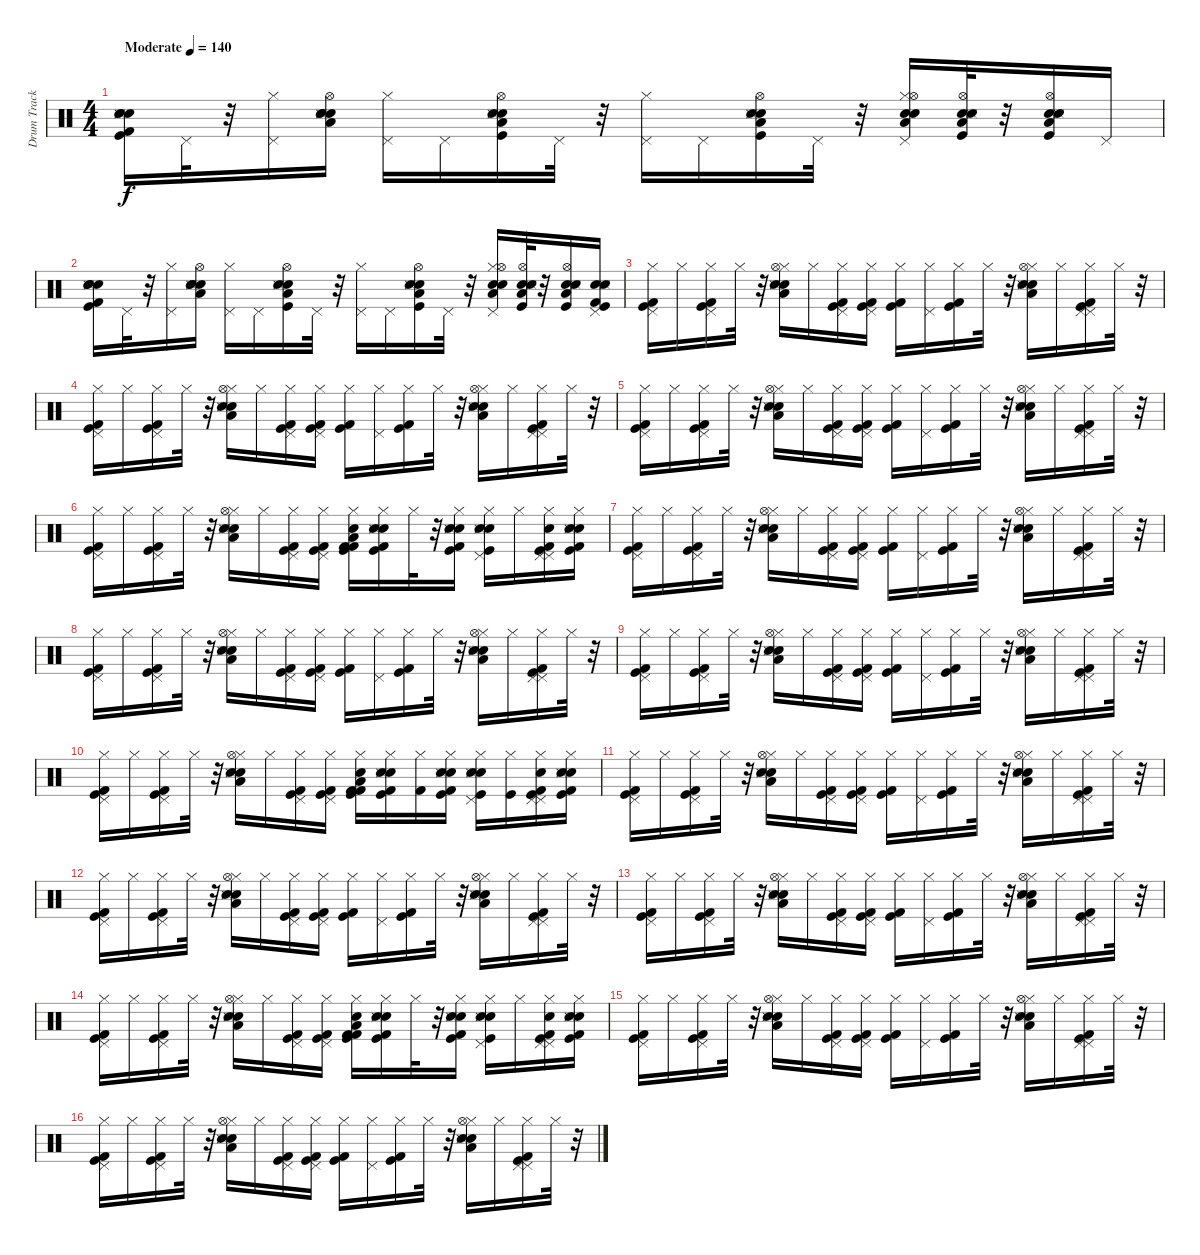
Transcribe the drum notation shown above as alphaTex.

\track ("Drum Track" "Drum Track") {instrument percussion}
\staff {score}
\articulation defaults
\ts (4 4)
\tempo (140 "Moderate")
\clef neutral
\ks c
("Snare (hit) 2" "Kick (hit) 2" "Kick (hit)" "Snare (side stick) 3" "Hand Clap (hit)" "Electric Snare (hit)").16{dy f} "Pedal Hi-Hat (hit)".32 r.32 ("Pedal Hi-Hat (hit)" "Hi-Hat (closed)").16 ("Hi-Hat (open)" "Low Floor Tom (hit)" "Electric Snare (hit)" "Snare (hit) 2" "Hand Clap (hit)" "Snare (side stick) 3").16 ("Pedal Hi-Hat (hit)" "Hi-Hat (closed)").16 "Pedal Hi-Hat (hit)".16 ("Hi-Hat (open)" "Low Floor Tom (hit)" "Electric Snare (hit)" "Hand Clap (hit)" "Snare (side stick) 3" "Kick (hit)").16 "Pedal Hi-Hat (hit)".32 r.32 ("Pedal Hi-Hat (hit)" "Hi-Hat (closed)").16 "Pedal Hi-Hat (hit)".16 ("Hi-Hat (open)" "Low Floor Tom (hit)" "Electric Snare (hit)" "Hand Clap (hit)" "Snare (side stick) 3" "Kick (hit)").16 "Pedal Hi-Hat (hit)".32 r.32 ("Pedal Hi-Hat (hit)" "Hi-Hat (closed)" "Hi-Hat (open)" "Low Floor Tom (hit)" "Electric Snare (hit)" "Hand Clap (hit)").16 ("Hi-Hat (open)" "Low Floor Tom (hit)" "Electric Snare (hit)" "Hand Clap (hit)" "Snare (side stick) 3" "Kick (hit)").32 r.32 ("Hi-Hat (open)" "Low Floor Tom (hit)" "Electric Snare (hit)" "Hand Clap (hit)" "Snare (side stick) 3" "Kick (hit)").16 "Pedal Hi-Hat (hit)".16 |
("Snare (hit) 2" "Kick (hit) 2" "Kick (hit)" "Snare (side stick) 3" "Hand Clap (hit)" "Electric Snare (hit)").16 "Pedal Hi-Hat (hit)".32 r.32 ("Pedal Hi-Hat (hit)" "Hi-Hat (closed)").16 ("Hi-Hat (open)" "Low Floor Tom (hit)" "Electric Snare (hit)" "Snare (hit) 2" "Hand Clap (hit)" "Snare (side stick) 3").16 ("Pedal Hi-Hat (hit)" "Hi-Hat (closed)").16 "Pedal Hi-Hat (hit)".16 ("Hi-Hat (open)" "Low Floor Tom (hit)" "Electric Snare (hit)" "Hand Clap (hit)" "Snare (side stick) 3" "Kick (hit)").16 "Pedal Hi-Hat (hit)".32 r.32 ("Pedal Hi-Hat (hit)" "Hi-Hat (closed)").16 "Pedal Hi-Hat (hit)".16 ("Hi-Hat (open)" "Low Floor Tom (hit)" "Electric Snare (hit)" "Hand Clap (hit)" "Snare (side stick) 3" "Kick (hit)").16 "Pedal Hi-Hat (hit)".32 r.32 ("Pedal Hi-Hat (hit)" "Hi-Hat (closed)" "Hi-Hat (open)" "Low Floor Tom (hit)" "Electric Snare (hit)" "Hand Clap (hit)").16 ("Hi-Hat (open)" "Low Floor Tom (hit)" "Electric Snare (hit)" "Hand Clap (hit)" "Snare (side stick) 3" "Kick (hit)").32 r.32 ("Hi-Hat (open)" "Low Floor Tom (hit)" "Electric Snare (hit)" "Hand Clap (hit)" "Snare (side stick) 3" "Kick (hit)").16 ("Pedal Hi-Hat (hit)" "Snare (hit) 2" "Kick (hit) 2" "Kick (hit)" "Snare (side stick) 3" "Hand Clap (hit)").16 |
("Kick (hit) 2" "Kick (hit)" "Pedal Hi-Hat (hit)" "Hi-Hat (closed)").16 "Hi-Hat (closed)".16 ("Kick (hit) 2" "Kick (hit)" "Pedal Hi-Hat (hit)" "Hi-Hat (closed)").16 "Hi-Hat (closed)".32 r.32 ("Hi-Hat (closed)" "Hi-Hat (open)" "Low Floor Tom (hit)" "Electric Snare (hit)" "Hand Clap (hit)" "Snare (side stick) 3").16 "Hi-Hat (closed)".16 ("Kick (hit) 2" "Kick (hit)" "Pedal Hi-Hat (hit)" "Hi-Hat (closed)").16 ("Kick (hit) 2" "Kick (hit)" "Pedal Hi-Hat (hit)" "Hi-Hat (closed)").16 ("Kick (hit) 2" "Kick (hit)" "Hi-Hat (closed)").16 ("Pedal Hi-Hat (hit)" "Hi-Hat (closed)").16 ("Kick (hit) 2" "Kick (hit)" "Hi-Hat (closed)").16 "Hi-Hat (closed)".32 r.32 ("Hi-Hat (closed)" "Hi-Hat (open)" "Low Floor Tom (hit)" "Electric Snare (hit)" "Hand Clap (hit)" "Snare (side stick) 3").16 "Hi-Hat (closed)".16 ("Kick (hit) 2" "Kick (hit)" "Pedal Hi-Hat (hit)" "Pedal Hi-Hat (hit)" "Hi-Hat (closed)").16 "Hi-Hat (closed)".32 r.32 |
("Hi-Hat (closed)" "Pedal Hi-Hat (hit)" "Kick (hit)" "Kick (hit) 2").16 "Hi-Hat (closed)".16 ("Kick (hit) 2" "Kick (hit)" "Pedal Hi-Hat (hit)" "Hi-Hat (closed)").16 "Hi-Hat (closed)".32 r.32 ("Hi-Hat (closed)" "Hi-Hat (open)" "Low Floor Tom (hit)" "Electric Snare (hit)" "Hand Clap (hit)" "Snare (side stick) 3").16 "Hi-Hat (closed)".16 ("Kick (hit) 2" "Kick (hit)" "Pedal Hi-Hat (hit)" "Hi-Hat (closed)").16 ("Kick (hit) 2" "Kick (hit)" "Pedal Hi-Hat (hit)" "Hi-Hat (closed)").16 ("Kick (hit) 2" "Kick (hit)" "Hi-Hat (closed)").16 ("Pedal Hi-Hat (hit)" "Hi-Hat (closed)").16 ("Kick (hit) 2" "Kick (hit)" "Hi-Hat (closed)").16 "Hi-Hat (closed)".32 r.32 ("Hi-Hat (closed)" "Hi-Hat (open)" "Low Floor Tom (hit)" "Electric Snare (hit)" "Hand Clap (hit)" "Snare (side stick) 3").16 "Hi-Hat (closed)".16 ("Kick (hit) 2" "Kick (hit)" "Pedal Hi-Hat (hit)" "Pedal Hi-Hat (hit)" "Hi-Hat (closed)").16 "Hi-Hat (closed)".32 r.32 |
("Hi-Hat (closed)" "Pedal Hi-Hat (hit)" "Kick (hit)" "Kick (hit) 2").16 "Hi-Hat (closed)".16 ("Kick (hit) 2" "Kick (hit)" "Pedal Hi-Hat (hit)" "Hi-Hat (closed)").16 "Hi-Hat (closed)".32 r.32 ("Hi-Hat (closed)" "Hi-Hat (open)" "Low Floor Tom (hit)" "Electric Snare (hit)" "Hand Clap (hit)" "Snare (side stick) 3").16 "Hi-Hat (closed)".16 ("Kick (hit) 2" "Kick (hit)" "Pedal Hi-Hat (hit)" "Hi-Hat (closed)").16 ("Kick (hit) 2" "Kick (hit)" "Pedal Hi-Hat (hit)" "Hi-Hat (closed)").16 ("Kick (hit) 2" "Kick (hit)" "Hi-Hat (closed)").16 ("Pedal Hi-Hat (hit)" "Hi-Hat (closed)").16 ("Kick (hit) 2" "Kick (hit)" "Hi-Hat (closed)").16 "Hi-Hat (closed)".32 r.32 ("Hi-Hat (closed)" "Hi-Hat (open)" "Low Floor Tom (hit)" "Electric Snare (hit)" "Hand Clap (hit)" "Snare (side stick) 3").16 "Hi-Hat (closed)".16 ("Kick (hit) 2" "Kick (hit)" "Pedal Hi-Hat (hit)" "Pedal Hi-Hat (hit)" "Hi-Hat (closed)").16 "Hi-Hat (closed)".32 r.32 |
("Hi-Hat (closed)" "Pedal Hi-Hat (hit)" "Kick (hit)" "Kick (hit) 2").16 "Hi-Hat (closed)".16 ("Kick (hit) 2" "Kick (hit)" "Pedal Hi-Hat (hit)" "Hi-Hat (closed)").16 "Hi-Hat (closed)".32 r.32 ("Hi-Hat (closed)" "Hi-Hat (open)" "Low Floor Tom (hit)" "Electric Snare (hit)" "Hand Clap (hit)" "Snare (side stick) 3").16 "Hi-Hat (closed)".16 ("Kick (hit) 2" "Kick (hit)" "Pedal Hi-Hat (hit)" "Hi-Hat (closed)").16 ("Kick (hit) 2" "Kick (hit)" "Pedal Hi-Hat (hit)" "Hi-Hat (closed)").16 ("Kick (hit) 2" "Kick (hit)" "Hi-Hat (closed)" "Low Floor Tom (hit)" "Snare (hit) 2" "Kick (hit) 2").16 ("Hi-Hat (closed)" "Electric Snare (hit)" "Hand Clap (hit)" "Snare (side stick) 3" "Kick (hit)" "Kick (hit) 2").16 "Hi-Hat (closed)".32 r.32 ("Hi-Hat (closed)" "Kick (hit) 2" "Kick (hit)" "Electric Snare (hit)" "Hand Clap (hit)" "Snare (side stick) 3").16 ("Hi-Hat (closed)" "Pedal Hi-Hat (hit)" "Electric Snare (hit)" "Hand Clap (hit)" "Snare (side stick) 3" "Kick (hit)").16 "Hi-Hat (closed)".16 ("Kick (hit) 2" "Kick (hit)" "Pedal Hi-Hat (hit)" "Pedal Hi-Hat (hit)" "Hi-Hat (closed)" "Electric Snare (hit)").16 ("Hi-Hat (closed)" "Electric Snare (hit)" "Hand Clap (hit)" "Snare (side stick) 3" "Kick (hit)" "Kick (hit) 2").16 |
("Hi-Hat (closed)" "Pedal Hi-Hat (hit)" "Kick (hit)" "Kick (hit) 2").16 "Hi-Hat (closed)".16 ("Kick (hit) 2" "Kick (hit)" "Pedal Hi-Hat (hit)" "Hi-Hat (closed)").16 "Hi-Hat (closed)".32 r.32 ("Hi-Hat (closed)" "Hi-Hat (open)" "Low Floor Tom (hit)" "Electric Snare (hit)" "Hand Clap (hit)" "Snare (side stick) 3").16 "Hi-Hat (closed)".16 ("Kick (hit) 2" "Kick (hit)" "Pedal Hi-Hat (hit)" "Hi-Hat (closed)").16 ("Kick (hit) 2" "Kick (hit)" "Pedal Hi-Hat (hit)" "Hi-Hat (closed)").16 ("Kick (hit) 2" "Kick (hit)" "Hi-Hat (closed)").16 ("Pedal Hi-Hat (hit)" "Hi-Hat (closed)").16 ("Kick (hit) 2" "Kick (hit)" "Hi-Hat (closed)").16 "Hi-Hat (closed)".32 r.32 ("Hi-Hat (closed)" "Hi-Hat (open)" "Low Floor Tom (hit)" "Electric Snare (hit)" "Hand Clap (hit)" "Snare (side stick) 3").16 "Hi-Hat (closed)".16 ("Kick (hit) 2" "Kick (hit)" "Pedal Hi-Hat (hit)" "Pedal Hi-Hat (hit)" "Hi-Hat (closed)").16 "Hi-Hat (closed)".32 r.32 |
("Hi-Hat (closed)" "Pedal Hi-Hat (hit)" "Kick (hit)" "Kick (hit) 2").16 "Hi-Hat (closed)".16 ("Kick (hit) 2" "Kick (hit)" "Pedal Hi-Hat (hit)" "Hi-Hat (closed)").16 "Hi-Hat (closed)".32 r.32 ("Hi-Hat (closed)" "Hi-Hat (open)" "Low Floor Tom (hit)" "Electric Snare (hit)" "Hand Clap (hit)" "Snare (side stick) 3").16 "Hi-Hat (closed)".16 ("Kick (hit) 2" "Kick (hit)" "Pedal Hi-Hat (hit)" "Hi-Hat (closed)").16 ("Kick (hit) 2" "Kick (hit)" "Pedal Hi-Hat (hit)" "Hi-Hat (closed)").16 ("Kick (hit) 2" "Kick (hit)" "Hi-Hat (closed)").16 ("Pedal Hi-Hat (hit)" "Hi-Hat (closed)").16 ("Kick (hit) 2" "Kick (hit)" "Hi-Hat (closed)").16 "Hi-Hat (closed)".32 r.32 ("Hi-Hat (closed)" "Hi-Hat (open)" "Low Floor Tom (hit)" "Electric Snare (hit)" "Hand Clap (hit)" "Snare (side stick) 3").16 "Hi-Hat (closed)".16 ("Kick (hit) 2" "Kick (hit)" "Pedal Hi-Hat (hit)" "Pedal Hi-Hat (hit)" "Hi-Hat (closed)").16 "Hi-Hat (closed)".32 r.32 |
("Hi-Hat (closed)" "Pedal Hi-Hat (hit)" "Kick (hit)" "Kick (hit) 2").16 "Hi-Hat (closed)".16 ("Kick (hit) 2" "Kick (hit)" "Pedal Hi-Hat (hit)" "Hi-Hat (closed)").16 "Hi-Hat (closed)".32 r.32 ("Hi-Hat (closed)" "Hi-Hat (open)" "Low Floor Tom (hit)" "Electric Snare (hit)" "Hand Clap (hit)" "Snare (side stick) 3").16 "Hi-Hat (closed)".16 ("Kick (hit) 2" "Kick (hit)" "Pedal Hi-Hat (hit)" "Hi-Hat (closed)").16 ("Kick (hit) 2" "Kick (hit)" "Pedal Hi-Hat (hit)" "Hi-Hat (closed)").16 ("Kick (hit) 2" "Kick (hit)" "Hi-Hat (closed)").16 ("Pedal Hi-Hat (hit)" "Hi-Hat (closed)").16 ("Kick (hit) 2" "Kick (hit)" "Hi-Hat (closed)").16 "Hi-Hat (closed)".32 r.32 ("Hi-Hat (closed)" "Hi-Hat (open)" "Low Floor Tom (hit)" "Electric Snare (hit)" "Hand Clap (hit)" "Snare (side stick) 3").16 "Hi-Hat (closed)".16 ("Kick (hit) 2" "Kick (hit)" "Pedal Hi-Hat (hit)" "Pedal Hi-Hat (hit)" "Hi-Hat (closed)").16 "Hi-Hat (closed)".32 r.32 |
("Hi-Hat (closed)" "Pedal Hi-Hat (hit)" "Kick (hit)" "Kick (hit) 2").16 "Hi-Hat (closed)".16 ("Kick (hit) 2" "Kick (hit)" "Pedal Hi-Hat (hit)" "Hi-Hat (closed)").16 "Hi-Hat (closed)".32 r.32 ("Hi-Hat (closed)" "Hi-Hat (open)" "Low Floor Tom (hit)" "Electric Snare (hit)" "Hand Clap (hit)" "Snare (side stick) 3").16 "Hi-Hat (closed)".16 ("Kick (hit) 2" "Kick (hit)" "Pedal Hi-Hat (hit)" "Hi-Hat (closed)").16 ("Kick (hit) 2" "Kick (hit)" "Pedal Hi-Hat (hit)" "Hi-Hat (closed)").16 ("Kick (hit) 2" "Kick (hit)" "Hi-Hat (closed)" "Low Floor Tom (hit)" "Snare (hit) 2" "Kick (hit) 2").16 ("Hi-Hat (closed)" "Electric Snare (hit)" "Hand Clap (hit)" "Snare (side stick) 3" "Kick (hit)" "Kick (hit) 2").16 ("Hi-Hat (closed)" "Kick (hit) 2").16 ("Hi-Hat (closed)" "Kick (hit) 2" "Kick (hit)" "Electric Snare (hit)" "Hand Clap (hit)" "Snare (side stick) 3").16 ("Hi-Hat (closed)" "Pedal Hi-Hat (hit)" "Electric Snare (hit)" "Hand Clap (hit)" "Snare (side stick) 3" "Kick (hit)").16 ("Hi-Hat (closed)" "Kick (hit)").16 ("Kick (hit) 2" "Kick (hit)" "Pedal Hi-Hat (hit)" "Pedal Hi-Hat (hit)" "Hi-Hat (closed)" "Electric Snare (hit)").16 ("Hi-Hat (closed)" "Electric Snare (hit)" "Hand Clap (hit)" "Snare (side stick) 3" "Kick (hit)" "Kick (hit) 2").16 |
("Kick (hit) 2" "Kick (hit)" "Pedal Hi-Hat (hit)" "Hi-Hat (closed)").16 "Hi-Hat (closed)".16 ("Kick (hit) 2" "Kick (hit)" "Pedal Hi-Hat (hit)" "Hi-Hat (closed)").16 "Hi-Hat (closed)".32 r.32 ("Hi-Hat (closed)" "Hi-Hat (open)" "Low Floor Tom (hit)" "Electric Snare (hit)" "Hand Clap (hit)" "Snare (side stick) 3").16 "Hi-Hat (closed)".16 ("Kick (hit) 2" "Kick (hit)" "Pedal Hi-Hat (hit)" "Hi-Hat (closed)").16 ("Kick (hit) 2" "Kick (hit)" "Pedal Hi-Hat (hit)" "Hi-Hat (closed)").16 ("Kick (hit) 2" "Kick (hit)" "Hi-Hat (closed)").16 ("Pedal Hi-Hat (hit)" "Hi-Hat (closed)").16 ("Kick (hit) 2" "Kick (hit)" "Hi-Hat (closed)").16 "Hi-Hat (closed)".32 r.32 ("Hi-Hat (closed)" "Hi-Hat (open)" "Low Floor Tom (hit)" "Electric Snare (hit)" "Hand Clap (hit)" "Snare (side stick) 3").16 "Hi-Hat (closed)".16 ("Kick (hit) 2" "Kick (hit)" "Pedal Hi-Hat (hit)" "Pedal Hi-Hat (hit)" "Hi-Hat (closed)").16 "Hi-Hat (closed)".32 r.32 |
("Hi-Hat (closed)" "Pedal Hi-Hat (hit)" "Kick (hit)" "Kick (hit) 2").16 "Hi-Hat (closed)".16 ("Kick (hit) 2" "Kick (hit)" "Pedal Hi-Hat (hit)" "Hi-Hat (closed)").16 "Hi-Hat (closed)".32 r.32 ("Hi-Hat (closed)" "Hi-Hat (open)" "Low Floor Tom (hit)" "Electric Snare (hit)" "Hand Clap (hit)" "Snare (side stick) 3").16 "Hi-Hat (closed)".16 ("Kick (hit) 2" "Kick (hit)" "Pedal Hi-Hat (hit)" "Hi-Hat (closed)").16 ("Kick (hit) 2" "Kick (hit)" "Pedal Hi-Hat (hit)" "Hi-Hat (closed)").16 ("Kick (hit) 2" "Kick (hit)" "Hi-Hat (closed)").16 ("Pedal Hi-Hat (hit)" "Hi-Hat (closed)").16 ("Kick (hit) 2" "Kick (hit)" "Hi-Hat (closed)").16 "Hi-Hat (closed)".32 r.32 ("Hi-Hat (closed)" "Hi-Hat (open)" "Low Floor Tom (hit)" "Electric Snare (hit)" "Hand Clap (hit)" "Snare (side stick) 3").16 "Hi-Hat (closed)".16 ("Kick (hit) 2" "Kick (hit)" "Pedal Hi-Hat (hit)" "Pedal Hi-Hat (hit)" "Hi-Hat (closed)").16 "Hi-Hat (closed)".32 r.32 |
("Hi-Hat (closed)" "Pedal Hi-Hat (hit)" "Kick (hit)" "Kick (hit) 2").16 "Hi-Hat (closed)".16 ("Kick (hit) 2" "Kick (hit)" "Pedal Hi-Hat (hit)" "Hi-Hat (closed)").16 "Hi-Hat (closed)".32 r.32 ("Hi-Hat (closed)" "Hi-Hat (open)" "Low Floor Tom (hit)" "Electric Snare (hit)" "Hand Clap (hit)" "Snare (side stick) 3").16 "Hi-Hat (closed)".16 ("Kick (hit) 2" "Kick (hit)" "Pedal Hi-Hat (hit)" "Hi-Hat (closed)").16 ("Kick (hit) 2" "Kick (hit)" "Pedal Hi-Hat (hit)" "Hi-Hat (closed)").16 ("Kick (hit) 2" "Kick (hit)" "Hi-Hat (closed)").16 ("Pedal Hi-Hat (hit)" "Hi-Hat (closed)").16 ("Kick (hit) 2" "Kick (hit)" "Hi-Hat (closed)").16 "Hi-Hat (closed)".32 r.32 ("Hi-Hat (closed)" "Hi-Hat (open)" "Low Floor Tom (hit)" "Electric Snare (hit)" "Hand Clap (hit)" "Snare (side stick) 3").16 "Hi-Hat (closed)".16 ("Kick (hit) 2" "Kick (hit)" "Pedal Hi-Hat (hit)" "Pedal Hi-Hat (hit)" "Hi-Hat (closed)").16 "Hi-Hat (closed)".32 r.32 |
("Hi-Hat (closed)" "Pedal Hi-Hat (hit)" "Kick (hit)" "Kick (hit) 2").16 "Hi-Hat (closed)".16 ("Kick (hit) 2" "Kick (hit)" "Pedal Hi-Hat (hit)" "Hi-Hat (closed)").16 "Hi-Hat (closed)".32 r.32 ("Hi-Hat (closed)" "Hi-Hat (open)" "Low Floor Tom (hit)" "Electric Snare (hit)" "Hand Clap (hit)" "Snare (side stick) 3").16 "Hi-Hat (closed)".16 ("Kick (hit) 2" "Kick (hit)" "Pedal Hi-Hat (hit)" "Hi-Hat (closed)").16 ("Kick (hit) 2" "Kick (hit)" "Pedal Hi-Hat (hit)" "Hi-Hat (closed)").16 ("Kick (hit) 2" "Kick (hit)" "Hi-Hat (closed)" "Low Floor Tom (hit)" "Snare (hit) 2" "Kick (hit) 2").16 ("Hi-Hat (closed)" "Electric Snare (hit)" "Hand Clap (hit)" "Snare (side stick) 3" "Kick (hit)" "Kick (hit) 2").16 "Hi-Hat (closed)".32 r.32 ("Hi-Hat (closed)" "Kick (hit) 2" "Kick (hit)" "Electric Snare (hit)" "Hand Clap (hit)" "Snare (side stick) 3").16 ("Hi-Hat (closed)" "Pedal Hi-Hat (hit)" "Electric Snare (hit)" "Hand Clap (hit)" "Snare (side stick) 3" "Kick (hit)").16 "Hi-Hat (closed)".16 ("Kick (hit) 2" "Kick (hit)" "Pedal Hi-Hat (hit)" "Pedal Hi-Hat (hit)" "Hi-Hat (closed)" "Electric Snare (hit)").16 ("Hi-Hat (closed)" "Electric Snare (hit)" "Hand Clap (hit)" "Snare (side stick) 3" "Kick (hit)" "Kick (hit) 2").16 |
("Hi-Hat (closed)" "Pedal Hi-Hat (hit)" "Kick (hit)" "Kick (hit) 2").16 "Hi-Hat (closed)".16 ("Kick (hit) 2" "Kick (hit)" "Pedal Hi-Hat (hit)" "Hi-Hat (closed)").16 "Hi-Hat (closed)".32 r.32 ("Hi-Hat (closed)" "Hi-Hat (open)" "Low Floor Tom (hit)" "Electric Snare (hit)" "Hand Clap (hit)" "Snare (side stick) 3").16 "Hi-Hat (closed)".16 ("Kick (hit) 2" "Kick (hit)" "Pedal Hi-Hat (hit)" "Hi-Hat (closed)").16 ("Kick (hit) 2" "Kick (hit)" "Pedal Hi-Hat (hit)" "Hi-Hat (closed)").16 ("Kick (hit) 2" "Kick (hit)" "Hi-Hat (closed)").16 ("Pedal Hi-Hat (hit)" "Hi-Hat (closed)").16 ("Kick (hit) 2" "Kick (hit)" "Hi-Hat (closed)").16 "Hi-Hat (closed)".32 r.32 ("Hi-Hat (closed)" "Hi-Hat (open)" "Low Floor Tom (hit)" "Electric Snare (hit)" "Hand Clap (hit)" "Snare (side stick) 3").16 "Hi-Hat (closed)".16 ("Kick (hit) 2" "Kick (hit)" "Pedal Hi-Hat (hit)" "Pedal Hi-Hat (hit)" "Hi-Hat (closed)").16 "Hi-Hat (closed)".32 r.32 |
("Hi-Hat (closed)" "Pedal Hi-Hat (hit)" "Kick (hit)" "Kick (hit) 2").16 "Hi-Hat (closed)".16 ("Kick (hit) 2" "Kick (hit)" "Pedal Hi-Hat (hit)" "Hi-Hat (closed)").16 "Hi-Hat (closed)".32 r.32 ("Hi-Hat (closed)" "Hi-Hat (open)" "Low Floor Tom (hit)" "Electric Snare (hit)" "Hand Clap (hit)" "Snare (side stick) 3").16 "Hi-Hat (closed)".16 ("Kick (hit) 2" "Kick (hit)" "Pedal Hi-Hat (hit)" "Hi-Hat (closed)").16 ("Kick (hit) 2" "Kick (hit)" "Pedal Hi-Hat (hit)" "Hi-Hat (closed)").16 ("Kick (hit) 2" "Kick (hit)" "Hi-Hat (closed)").16 ("Pedal Hi-Hat (hit)" "Hi-Hat (closed)").16 ("Kick (hit) 2" "Kick (hit)" "Hi-Hat (closed)").16 "Hi-Hat (closed)".32 r.32 ("Hi-Hat (closed)" "Hi-Hat (open)" "Low Floor Tom (hit)" "Electric Snare (hit)" "Hand Clap (hit)" "Snare (side stick) 3").16 "Hi-Hat (closed)".16 ("Kick (hit) 2" "Kick (hit)" "Pedal Hi-Hat (hit)" "Pedal Hi-Hat (hit)" "Hi-Hat (closed)").16 "Hi-Hat (closed)".32 r.32
